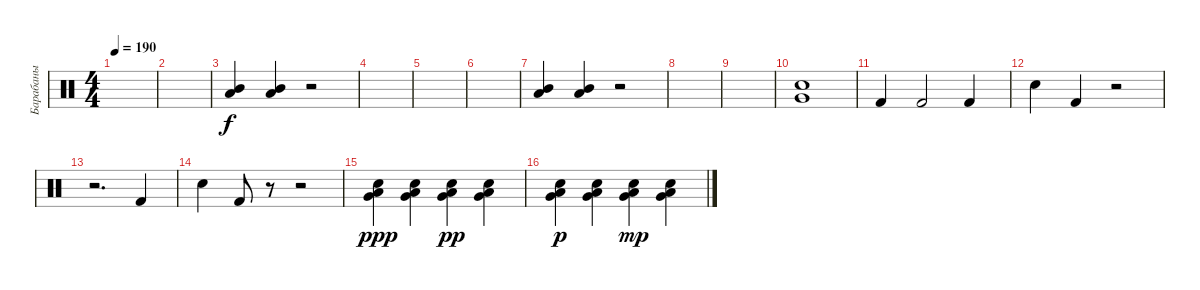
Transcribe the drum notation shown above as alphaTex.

\track ("Барабаны" "Барабаны") {instrument percussion}
\staff {score}
\articulation defaults
\ts (4 4)
\tempo 190
\clef neutral
\ks c
|
|
("Low Tom (hit)" "Mid Tom (hit)").4 ("Low Tom (hit)" "Mid Tom (hit)").4 r.2 |
|
|
|
("Low Tom (hit)" "Mid Tom (hit)").4 ("Low Tom (hit)" "Mid Tom (hit)").4 r.2 |
|
|
("Snare (hit) 2" "Very Low Tom (hit)").1 |
"Kick (hit) 2".4 "Kick (hit) 2".2 "Kick (hit) 2".4 |
"Snare (hit) 2".4 "Kick (hit) 2".4 r.2 |
r.2{d} "Kick (hit) 2".4 |
"Snare (hit) 2".4 "Kick (hit) 2".8 r.8 r.2 |
("Very Low Tom (hit)" "Electric Snare (hit)" "Low Tom (hit)").4{dy ppp} ("Very Low Tom (hit)" "Electric Snare (hit)" "Low Tom (hit)").4 ("Very Low Tom (hit)" "Electric Snare (hit)" "Low Tom (hit)").4{dy pp} ("Very Low Tom (hit)" "Electric Snare (hit)" "Low Tom (hit)").4 |
("Very Low Tom (hit)" "Electric Snare (hit)" "Low Tom (hit)").4{dy p} ("Very Low Tom (hit)" "Electric Snare (hit)" "Low Tom (hit)").4 ("Very Low Tom (hit)" "Electric Snare (hit)" "Low Tom (hit)").4{dy mp} ("Very Low Tom (hit)" "Electric Snare (hit)" "Low Tom (hit)").4
